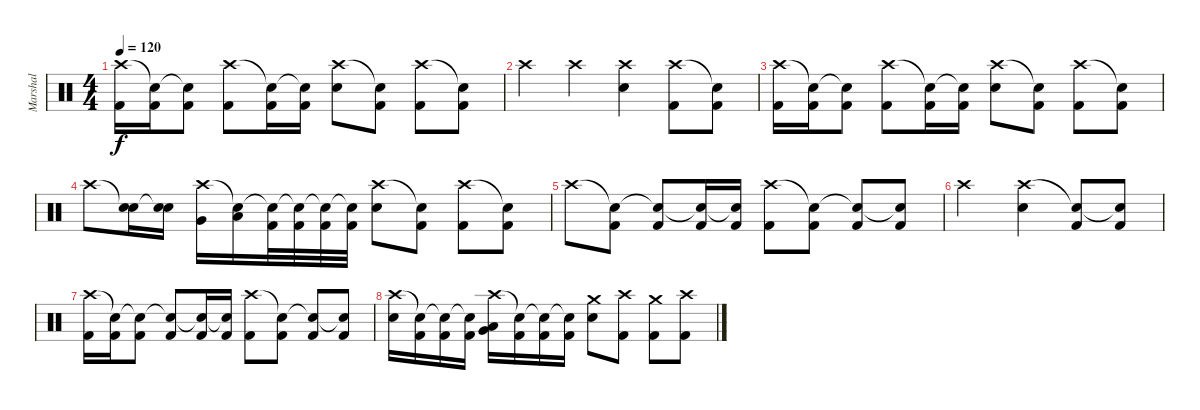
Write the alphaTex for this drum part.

\track ("Marshal" "Marshal") {instrument percussion}
\staff {score}
\articulation defaults
\ts (4 4)
\tempo 120
\clef neutral
\ks c
("Crash high (hit)" "Kick (hit) 2").16{dy f} ("Snare (hit)"{t} "Kick (hit) 2").16 ("Snare (hit)"{t} "Kick (hit) 2").8 ("Crash high (hit)" "Kick (hit) 2").8 ("Snare (hit)"{t} "Kick (hit) 2").16 ("Snare (hit)"{t} "Kick (hit) 2").16 ("Crash high (hit)" "Electric Snare (hit)").8 ("Snare (hit)"{t} "Kick (hit) 2").8 ("Crash high (hit)" "Kick (hit) 2").8 ("Snare (hit)"{t} "Kick (hit) 2").8 |
"Crash high (hit)".4 "Crash high (hit)".4 ("Crash high (hit)" "Electric Snare (hit)").4 ("Crash high (hit)" "Kick (hit) 2").8 ("Snare (hit)"{t} "Kick (hit) 2").8 |
("Crash high (hit)" "Kick (hit) 2").16 ("Snare (hit)"{t} "Kick (hit) 2").16 ("Snare (hit)"{t} "Kick (hit) 2").8 ("Crash high (hit)" "Kick (hit) 2").8 ("Snare (hit)"{t} "Kick (hit) 2").16 ("Snare (hit)"{t} "Kick (hit) 2").16 ("Crash high (hit)" "Electric Snare (hit)").8 ("Snare (hit)"{t} "Kick (hit) 2").8 ("Crash high (hit)" "Kick (hit) 2").8 ("Snare (hit)"{t} "Kick (hit) 2").8 |
"Crash high (hit)".8 ("Snare (hit)"{t} "Electric Snare (hit)").16 ("Snare (hit)"{t} "Electric Snare (hit)").16 ("Crash high (hit)" "Very Low Tom (hit)").16 ("Snare (hit)"{t} "Low Floor Tom (hit)").16 ("Snare (hit)"{t} "Kick (hit) 2").32 ("Snare (hit)"{t} "Kick (hit) 2").32 ("Snare (hit)"{t} "Kick (hit) 2").32 ("Snare (hit)"{t} "Kick (hit) 2").32 ("Crash high (hit)" "Electric Snare (hit)").8 ("Snare (hit)"{t} "Kick (hit) 2").8 ("Crash high (hit)" "Kick (hit) 2").8 ("Snare (hit)"{t} "Kick (hit) 2").8 |
"Crash high (hit)".8 ("Snare (hit)"{t} "Kick (hit) 2").8 ("Snare (hit)"{t} "Kick (hit) 2").8 ("Snare (hit)"{t} "Kick (hit) 2").16 ("Snare (hit)"{t} "Kick (hit) 2").16 ("Crash high (hit)" "Kick (hit) 2").8 ("Snare (hit)"{t} "Kick (hit) 2").8 ("Snare (hit)"{t} "Kick (hit) 2").8 ("Snare (hit)"{t} "Kick (hit) 2").8 |
"Crash high (hit)".2 ("Crash high (hit)" "Electric Snare (hit)").4 ("Snare (hit)"{t} "Kick (hit) 2").8 ("Snare (hit)"{t} "Kick (hit) 2").8 |
("Crash high (hit)" "Kick (hit) 2").16 ("Snare (hit)"{t} "Kick (hit) 2").16 ("Snare (hit)"{t} "Kick (hit) 2").8 ("Snare (hit)"{t} "Kick (hit) 2").8 ("Snare (hit)"{t} "Kick (hit) 2").16 ("Snare (hit)"{t} "Kick (hit) 2").16 ("Crash high (hit)" "Kick (hit) 2").8 ("Snare (hit)"{t} "Kick (hit) 2").8 ("Snare (hit)"{t} "Kick (hit) 2").8 ("Snare (hit)"{t} "Kick (hit) 2").8 |
("Crash high (hit)" "Electric Snare (hit)").16 ("Snare (hit)"{t} "Kick (hit) 2").16 ("Snare (hit)"{t} "Kick (hit) 2").16 ("Snare (hit)"{t} "Kick (hit) 2").16 ("Crash high (hit)" "Very Low Tom (hit)" "Low Floor Tom (hit)").16 ("Snare (hit)"{t} "Kick (hit) 2").16 ("Snare (hit)"{t} "Kick (hit) 2").16 ("Snare (hit)"{t} "Kick (hit) 2").16 ("Crash medium (hit)" "Electric Snare (hit)").8 ("Crash high (hit)" "Kick (hit) 2").8 ("Crash medium (hit)" "Kick (hit) 2").8 ("Crash high (hit)" "Kick (hit) 2").8
